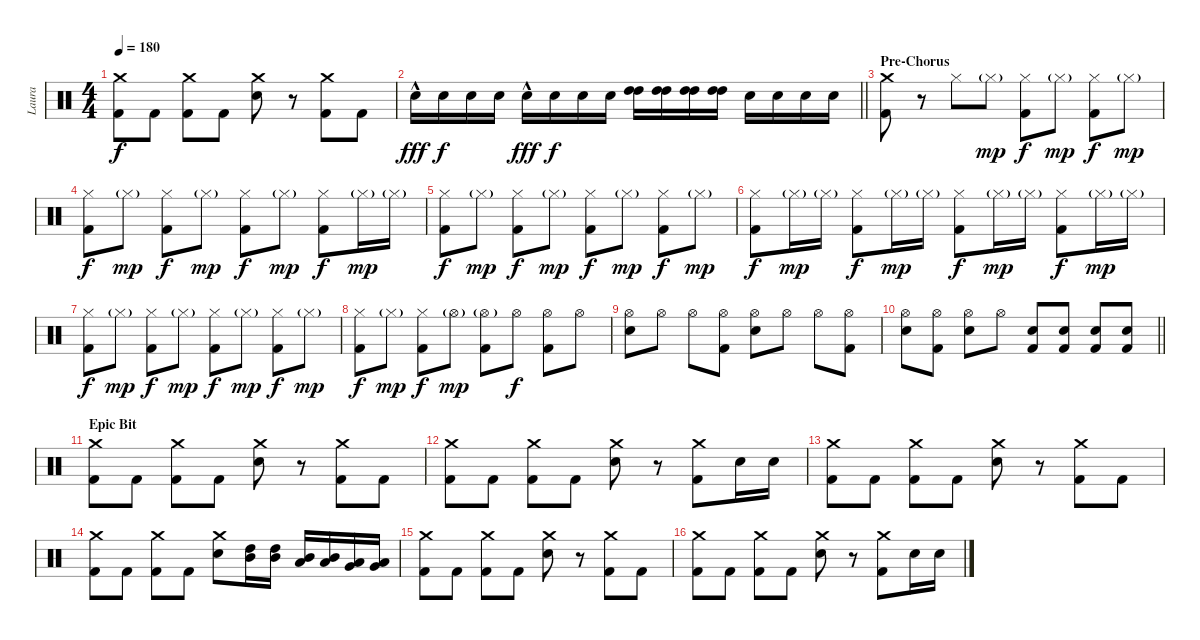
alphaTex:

\track ("Laura" "Laura") {instrument percussion}
\staff {score}
\articulation defaults
\ts (4 4)
\tempo 180
\clef neutral
\ks c
("Crash medium (hit)" "Kick (hit) 2").8{dy f} "Kick (hit) 2".8 ("Crash medium (hit)" "Kick (hit) 2").8 "Kick (hit) 2".8 ("Crash medium (hit)" "Electric Snare (hit)").8 r.8 ("Crash medium (hit)" "Kick (hit) 2").8 "Kick (hit) 2".8 |
\barLineRight lightlight "Electric Snare (hit)"{hac}.16{dy fff} "Electric Snare (hit)".16{dy f} "Electric Snare (hit)".16 "Electric Snare (hit)".16 "Electric Snare (hit)"{hac}.16{dy fff} "Electric Snare (hit)".16{dy f} "Electric Snare (hit)".16 "Electric Snare (hit)".16
("High Tom (hit)" "High Tom (hit)").16 ("High Tom (hit)" "High Tom (hit)").16 ("High Tom (hit)" "High Tom (hit)").16 ("High Tom (hit)" "High Tom (hit)").16 "Electric Snare (hit)".16 "Electric Snare (hit)".16 "Electric Snare (hit)".16 "Electric Snare (hit)".16 |
\section ("" "Pre-Chorus")
("Crash medium (hit)" "Kick (hit) 2").8 r.8 "Hi-Hat (closed)".8 "Hi-Hat (closed)"{g}.8{dy mp} ("Hi-Hat (closed)" "Kick (hit) 2").8{dy f} "Hi-Hat (closed)"{g}.8{dy mp} ("Hi-Hat (closed)" "Kick (hit) 2").8{dy f} "Hi-Hat (closed)"{g}.8{dy mp} |
("Hi-Hat (closed)" "Kick (hit) 2").8{dy f} "Hi-Hat (closed)"{g}.8{dy mp} ("Hi-Hat (closed)" "Kick (hit) 2").8{dy f} "Hi-Hat (closed)"{g}.8{dy mp} ("Hi-Hat (closed)" "Kick (hit) 2").8{dy f} "Hi-Hat (closed)"{g}.8{dy mp} ("Hi-Hat (closed)" "Kick (hit) 2").8{dy f} "Hi-Hat (closed)"{g}.16{dy mp} "Hi-Hat (closed)"{g}.16 |
("Hi-Hat (closed)" "Kick (hit) 2").8{dy f} "Hi-Hat (closed)"{g}.8{dy mp} ("Hi-Hat (closed)" "Kick (hit) 2").8{dy f} "Hi-Hat (closed)"{g}.8{dy mp} ("Hi-Hat (closed)" "Kick (hit) 2").8{dy f} "Hi-Hat (closed)"{g}.8{dy mp} ("Hi-Hat (closed)" "Kick (hit) 2").8{dy f} "Hi-Hat (closed)"{g}.8{dy mp} |
("Hi-Hat (closed)" "Kick (hit) 2").8{dy f} "Hi-Hat (closed)"{g}.16{dy mp} "Hi-Hat (closed)"{g}.16 ("Hi-Hat (closed)" "Kick (hit) 2").8{dy f} "Hi-Hat (closed)"{g}.16{dy mp} "Hi-Hat (closed)"{g}.16 ("Hi-Hat (closed)" "Kick (hit) 2").8{dy f} "Hi-Hat (closed)"{g}.16{dy mp} "Hi-Hat (closed)"{g}.16 ("Hi-Hat (closed)" "Kick (hit) 2").8{dy f} "Hi-Hat (closed)"{g}.16{dy mp} "Hi-Hat (closed)"{g}.16 |
("Hi-Hat (closed)" "Kick (hit) 2").8{dy f} "Hi-Hat (closed)"{g}.8{dy mp} ("Hi-Hat (closed)" "Kick (hit) 2").8{dy f} "Hi-Hat (closed)"{g}.8{dy mp} ("Hi-Hat (closed)" "Kick (hit) 2").8{dy f} "Hi-Hat (closed)"{g}.8{dy mp} ("Hi-Hat (closed)" "Kick (hit) 2").8{dy f} "Hi-Hat (closed)"{g}.8{dy mp} |
("Hi-Hat (closed)" "Kick (hit) 2").8{dy f} "Hi-Hat (closed)"{g}.8{dy mp} ("Hi-Hat (closed)" "Kick (hit) 2").8{dy f} "Hi-Hat (open)"{g}.8{dy mp} ("Hi-Hat (open)"{g} "Kick (hit) 2").8 "Hi-Hat (open)".8{dy f} ("Hi-Hat (open)" "Kick (hit) 2").8 "Hi-Hat (open)".8 |
("Hi-Hat (open)" "Electric Snare (hit)").8 "Hi-Hat (open)".8 "Hi-Hat (open)".8 ("Hi-Hat (open)" "Kick (hit) 2").8 ("Hi-Hat (open)" "Electric Snare (hit)").8 "Hi-Hat (open)".8 "Hi-Hat (open)".8 ("Hi-Hat (open)" "Kick (hit) 2").8 |
\barLineRight lightlight
("Hi-Hat (open)" "Electric Snare (hit)").8 ("Hi-Hat (open)" "Kick (hit) 2").8 ("Hi-Hat (open)" "Electric Snare (hit)").8 "Hi-Hat (open)".8 ("Electric Snare (hit)" "Kick (hit) 2").8 ("Electric Snare (hit)" "Kick (hit) 2").8 ("Electric Snare (hit)" "Kick (hit) 2").8 ("Electric Snare (hit)" "Kick (hit) 2").8 |
\section ("" "Epic Bit")
("Crash medium (hit)" "Kick (hit) 2").8 "Kick (hit) 2".8 ("Crash medium (hit)" "Kick (hit) 2").8 "Kick (hit) 2".8 ("Crash medium (hit)" "Electric Snare (hit)").8 r.8 ("Crash medium (hit)" "Kick (hit) 2").8 "Kick (hit) 2".8 |
("Crash medium (hit)" "Kick (hit) 2").8 "Kick (hit) 2".8 ("Crash medium (hit)" "Kick (hit) 2").8 "Kick (hit) 2".8 ("Crash medium (hit)" "Electric Snare (hit)").8 r.8 ("Crash medium (hit)" "Kick (hit) 2").8 "Electric Snare (hit)".16 "Electric Snare (hit)".16 |
("Crash medium (hit)" "Kick (hit) 2").8 "Kick (hit) 2".8 ("Crash medium (hit)" "Kick (hit) 2").8 "Kick (hit) 2".8 ("Crash medium (hit)" "Electric Snare (hit)").8 r.8 ("Crash medium (hit)" "Kick (hit) 2").8 "Kick (hit) 2".8 |
("Crash medium (hit)" "Kick (hit) 2").8 "Kick (hit) 2".8 ("Crash medium (hit)" "Kick (hit) 2").8 "Kick (hit) 2".8 ("Crash medium (hit)" "Electric Snare (hit)").8 ("High Tom (hit)" "Mid Tom (hit)").16 ("High Tom (hit)" "Mid Tom (hit)").16 ("Mid Tom (hit)" "Low Tom (hit)").16 ("Mid Tom (hit)" "Low Tom (hit)").16 ("Low Tom (hit)" "Very Low Tom (hit)").16 ("Low Tom (hit)" "Very Low Tom (hit)").16 |
("Crash medium (hit)" "Kick (hit) 2").8 "Kick (hit) 2".8 ("Crash medium (hit)" "Kick (hit) 2").8 "Kick (hit) 2".8 ("Crash medium (hit)" "Electric Snare (hit)").8 r.8 ("Crash medium (hit)" "Kick (hit) 2").8 "Kick (hit) 2".8 |
("Crash medium (hit)" "Kick (hit) 2").8 "Kick (hit) 2".8 ("Crash medium (hit)" "Kick (hit) 2").8 "Kick (hit) 2".8 ("Crash medium (hit)" "Electric Snare (hit)").8 r.8 ("Crash medium (hit)" "Kick (hit) 2").8 "Electric Snare (hit)".16 "Electric Snare (hit)".16
